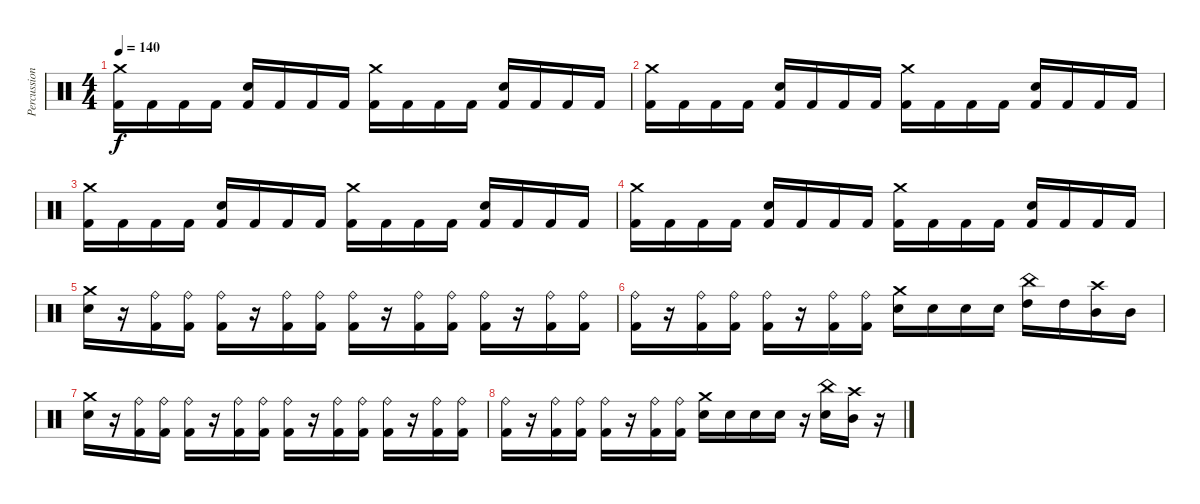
\track ("Percussions" "Percussion") {instrument percussion}
\staff {score}
\articulation defaults
\ts (4 4)
\tempo 140
\clef neutral
\ks c
("Crash medium (hit)" "Kick (hit) 2").16{dy f} "Kick (hit) 2".16 "Kick (hit) 2".16 "Kick (hit) 2".16 ("Electric Snare (hit)" "Kick (hit) 2").16 "Kick (hit) 2".16 "Kick (hit) 2".16 "Kick (hit) 2".16 ("Crash medium (hit)" "Kick (hit) 2").16 "Kick (hit) 2".16 "Kick (hit) 2".16 "Kick (hit) 2".16 ("Electric Snare (hit)" "Kick (hit) 2").16 "Kick (hit) 2".16 "Kick (hit) 2".16 "Kick (hit) 2".16 |
("Crash medium (hit)" "Kick (hit) 2").16 "Kick (hit) 2".16 "Kick (hit) 2".16 "Kick (hit) 2".16 ("Electric Snare (hit)" "Kick (hit) 2").16 "Kick (hit) 2".16 "Kick (hit) 2".16 "Kick (hit) 2".16 ("Crash medium (hit)" "Kick (hit) 2").16 "Kick (hit) 2".16 "Kick (hit) 2".16 "Kick (hit) 2".16 ("Electric Snare (hit)" "Kick (hit) 2").16 "Kick (hit) 2".16 "Kick (hit) 2".16 "Kick (hit) 2".16 |
("Crash medium (hit)" "Kick (hit) 2").16 "Kick (hit) 2".16 "Kick (hit) 2".16 "Kick (hit) 2".16 ("Electric Snare (hit)" "Kick (hit) 2").16 "Kick (hit) 2".16 "Kick (hit) 2".16 "Kick (hit) 2".16 ("Crash medium (hit)" "Kick (hit) 2").16 "Kick (hit) 2".16 "Kick (hit) 2".16 "Kick (hit) 2".16 ("Electric Snare (hit)" "Kick (hit) 2").16 "Kick (hit) 2".16 "Kick (hit) 2".16 "Kick (hit) 2".16 |
("Crash medium (hit)" "Kick (hit) 2").16 "Kick (hit) 2".16 "Kick (hit) 2".16 "Kick (hit) 2".16 ("Electric Snare (hit)" "Kick (hit) 2").16 "Kick (hit) 2".16 "Kick (hit) 2".16 "Kick (hit) 2".16 ("Crash medium (hit)" "Kick (hit) 2").16 "Kick (hit) 2".16 "Kick (hit) 2".16 "Kick (hit) 2".16 ("Electric Snare (hit)" "Kick (hit) 2").16 "Kick (hit) 2".16 "Kick (hit) 2".16 "Kick (hit) 2".16 |
("Crash medium (hit)" "Snare (hit) 2").16 r.16 ("Ride (bell)" "Kick (hit) 2").16 ("Ride (bell)" "Kick (hit) 2").16 ("Ride (bell)" "Kick (hit) 2").16 r.16 ("Ride (bell)" "Kick (hit) 2").16 ("Ride (bell)" "Kick (hit) 2").16 ("Ride (bell)" "Kick (hit) 2").16 r.16 ("Ride (bell)" "Kick (hit) 2").16 ("Ride (bell)" "Kick (hit) 2").16 ("Ride (bell)" "Kick (hit) 2").16 r.16 ("Ride (bell)" "Kick (hit) 2").16 ("Ride (bell)" "Kick (hit) 2").16 |
("Ride (bell)" "Kick (hit) 2").16 r.16 ("Ride (bell)" "Kick (hit) 2").16 ("Ride (bell)" "Kick (hit) 2").16 ("Ride (bell)" "Kick (hit) 2").16 r.16 ("Ride (bell)" "Kick (hit) 2").16 ("Ride (bell)" "Kick (hit) 2").16 ("Crash medium (hit)" "Snare (hit) 2").16 "Snare (hit) 2".16 "Snare (hit) 2".16 "Snare (hit) 2".16 ("China (hit)" "High Tom (hit)").16 "High Tom (hit)".16 ("Crash high (hit)" "Mid Tom (hit)").16 "Mid Tom (hit)".16 |
("Crash medium (hit)" "Snare (hit) 2").16 r.16 ("Ride (bell)" "Kick (hit) 2").16 ("Ride (bell)" "Kick (hit) 2").16 ("Ride (bell)" "Kick (hit) 2").16 r.16 ("Ride (bell)" "Kick (hit) 2").16 ("Ride (bell)" "Kick (hit) 2").16 ("Ride (bell)" "Kick (hit) 2").16 r.16 ("Ride (bell)" "Kick (hit) 2").16 ("Ride (bell)" "Kick (hit) 2").16 ("Ride (bell)" "Kick (hit) 2").16 r.16 ("Ride (bell)" "Kick (hit) 2").16 ("Ride (bell)" "Kick (hit) 2").16 |
("Ride (bell)" "Kick (hit) 2").16 r.16 ("Ride (bell)" "Kick (hit) 2").16 ("Ride (bell)" "Kick (hit) 2").16 ("Ride (bell)" "Kick (hit) 2").16 r.16 ("Ride (bell)" "Kick (hit) 2").16 ("Ride (bell)" "Kick (hit) 2").16 ("Crash medium (hit)" "Snare (hit) 2").16 "Snare (hit) 2".16 "Snare (hit) 2".16 "Snare (hit) 2".16 r.16 ("China (hit)" "Snare (hit) 2").16 ("Crash high (hit)" "Mid Tom (hit)").16 r.16
